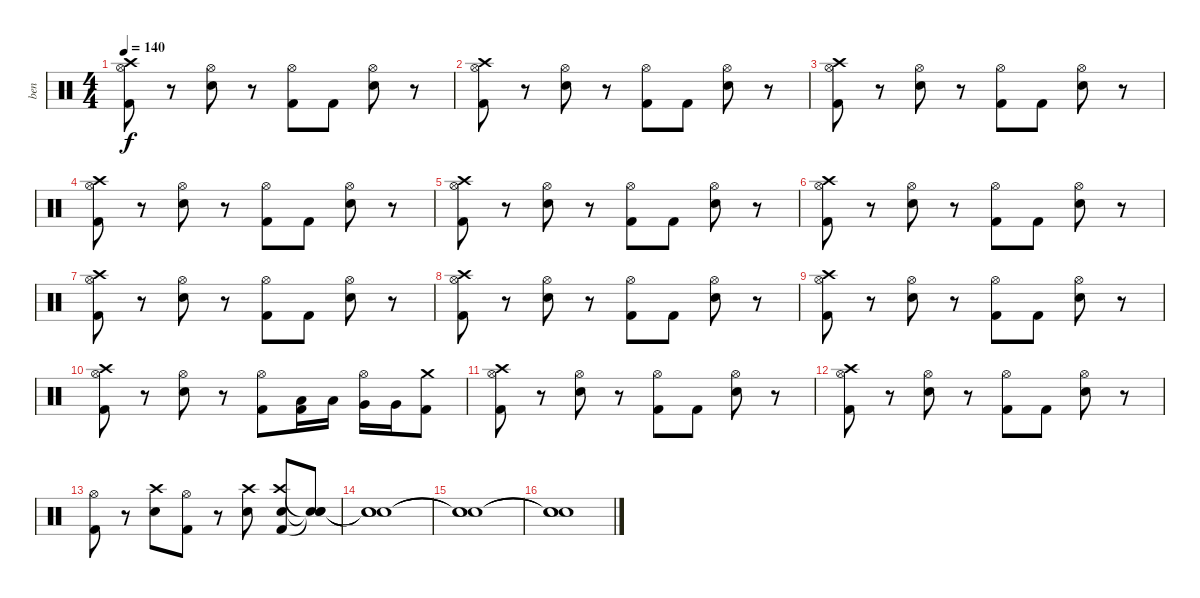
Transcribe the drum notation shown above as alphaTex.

\track ("ben" "ben") {instrument percussion}
\staff {score}
\articulation defaults
\ts (4 4)
\tempo 140
\clef neutral
\ks c
("Hi-Hat (open)" "Kick (hit) 2" "Crash high (hit)").8{dy f} r.8 ("Hi-Hat (open)" "Electric Snare (hit)").8 r.8 ("Hi-Hat (open)" "Kick (hit) 2").8 "Kick (hit) 2".8 ("Hi-Hat (open)" "Electric Snare (hit)").8 r.8 |
("Hi-Hat (open)" "Kick (hit) 2" "Crash high (hit)").8 r.8 ("Hi-Hat (open)" "Electric Snare (hit)").8 r.8 ("Hi-Hat (open)" "Kick (hit) 2").8 "Kick (hit) 2".8 ("Hi-Hat (open)" "Electric Snare (hit)").8 r.8 |
("Hi-Hat (open)" "Kick (hit) 2" "Crash high (hit)").8 r.8 ("Hi-Hat (open)" "Electric Snare (hit)").8 r.8 ("Hi-Hat (open)" "Kick (hit) 2").8 "Kick (hit) 2".8 ("Hi-Hat (open)" "Electric Snare (hit)").8 r.8 |
("Hi-Hat (open)" "Kick (hit) 2" "Crash high (hit)").8 r.8 ("Hi-Hat (open)" "Electric Snare (hit)").8 r.8 ("Hi-Hat (open)" "Kick (hit) 2").8 "Kick (hit) 2".8 ("Hi-Hat (open)" "Electric Snare (hit)").8 r.8 |
("Hi-Hat (open)" "Kick (hit) 2" "Crash high (hit)").8 r.8 ("Hi-Hat (open)" "Electric Snare (hit)").8 r.8 ("Hi-Hat (open)" "Kick (hit) 2").8 "Kick (hit) 2".8 ("Hi-Hat (open)" "Electric Snare (hit)").8 r.8 |
("Hi-Hat (open)" "Kick (hit) 2" "Crash high (hit)").8 r.8 ("Hi-Hat (open)" "Electric Snare (hit)").8 r.8 ("Hi-Hat (open)" "Kick (hit) 2").8 "Kick (hit) 2".8 ("Hi-Hat (open)" "Electric Snare (hit)").8 r.8 |
("Hi-Hat (open)" "Kick (hit) 2" "Crash high (hit)").8 r.8 ("Hi-Hat (open)" "Electric Snare (hit)").8 r.8 ("Hi-Hat (open)" "Kick (hit) 2").8 "Kick (hit) 2".8 ("Hi-Hat (open)" "Electric Snare (hit)").8 r.8 |
("Hi-Hat (open)" "Kick (hit) 2" "Crash high (hit)").8 r.8 ("Hi-Hat (open)" "Electric Snare (hit)").8 r.8 ("Hi-Hat (open)" "Kick (hit) 2").8 "Kick (hit) 2".8 ("Hi-Hat (open)" "Electric Snare (hit)").8 r.8 |
("Hi-Hat (open)" "Kick (hit) 2" "Crash high (hit)").8 r.8 ("Hi-Hat (open)" "Electric Snare (hit)").8 r.8 ("Hi-Hat (open)" "Kick (hit) 2").8 "Kick (hit) 2".8 ("Hi-Hat (open)" "Electric Snare (hit)").8 r.8 |
("Hi-Hat (open)" "Kick (hit) 2" "Crash high (hit)").8 r.8 ("Hi-Hat (open)" "Electric Snare (hit)").8 r.8 ("Hi-Hat (open)" "Kick (hit) 2").8 ("Kick (hit) 2" "Low Tom (hit)").16 "Low Tom (hit)".16 ("Hi-Hat (open)" "Very Low Tom (hit)").16 "Very Low Tom (hit)".16 ("Kick (hit) 2" "Crash medium (hit)").8 |
("Hi-Hat (open)" "Kick (hit) 2" "Crash high (hit)").8 r.8 ("Hi-Hat (open)" "Electric Snare (hit)").8 r.8 ("Hi-Hat (open)" "Kick (hit) 2").8 "Kick (hit) 2".8 ("Hi-Hat (open)" "Electric Snare (hit)").8 r.8 |
("Hi-Hat (open)" "Kick (hit) 2" "Crash high (hit)").8 r.8 ("Hi-Hat (open)" "Electric Snare (hit)").8 r.8 ("Hi-Hat (open)" "Kick (hit) 2").8 "Kick (hit) 2".8 ("Hi-Hat (open)" "Electric Snare (hit)").8 r.8 |
("Hi-Hat (open)" "Kick (hit) 2").8 r.8 ("Crash high (hit)" "Electric Snare (hit)").8 ("Hi-Hat (open)" "Kick (hit) 2").8 r.8 ("Crash high (hit)" "Electric Snare (hit)").8 ("Crash high (hit)" "Kick (hit) 2" "Electric Snare (hit)").8 ("Snare (hit)"{t} "Snare (hit)"{t} "Snare (hit)"{t}).8 |
("Snare (hit)"{t} "Snare (hit)"{t} "Snare (hit)"{t}).1 |
("Snare (hit)"{t} "Snare (hit)"{t} "Snare (hit)"{t}).1 |
("Snare (hit)"{t} "Snare (hit)"{t} "Snare (hit)"{t}).1
